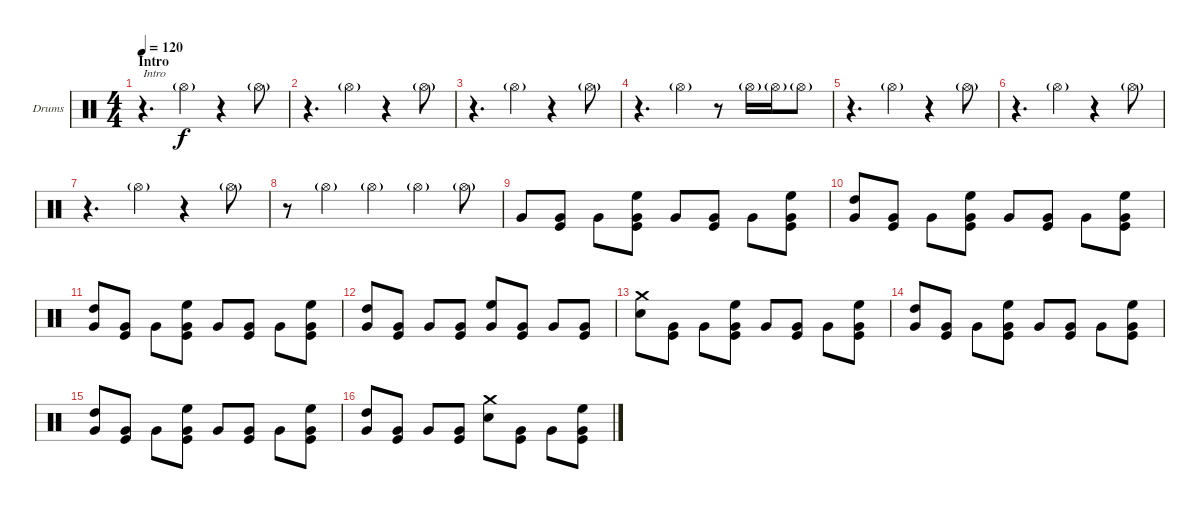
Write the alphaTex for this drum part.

\bracketExtendMode groupsimilarinstruments
\firstSystemTrackNameOrientation horizontal
\otherSystemsTrackNameOrientation horizontal
\track ("Drumkit" "Drums") {instrument percussion}
\staff {score}
\articulation defaults
\ts (4 4)
\section ("" "Intro")
\tempo 120
\clef neutral
\ks c
r.4{d txt "Intro" dy f} "Hi-Hat (open)"{g}.4 r.4 "Hi-Hat (open)"{g}.8 |
r.4{d} "Hi-Hat (open)"{g}.4 r.4 "Hi-Hat (open)"{g}.8 |
r.4{d} "Hi-Hat (open)"{g}.4 r.4 "Hi-Hat (open)"{g}.8 |
r.4{d} "Hi-Hat (open)"{g}.4 r.8 "Hi-Hat (open)"{g}.16 "Hi-Hat (open)"{g}.16 "Hi-Hat (open)"{g}.8 |
r.4{d} "Hi-Hat (open)"{g}.4 r.4 "Hi-Hat (open)"{g}.8 |
r.4{d} "Hi-Hat (open)"{g}.4 r.4 "Hi-Hat (open)"{g}.8 |
r.4{d} "Hi-Hat (open)"{g}.4 r.4 "Hi-Hat (open)"{g}.8 |
r.8 "Hi-Hat (open)"{g}.4 "Hi-Hat (open)"{g}.4 "Hi-Hat (open)"{g}.4 "Hi-Hat (open)"{g}.8 |
"Very Low Tom (hit)".8 ("Very Low Tom (hit)" "Kick (hit)").8 "Very Low Tom (hit)".8 ("High Floor Tom (hit)" "Very Low Tom (hit)" "Kick (hit)").8 "Very Low Tom (hit)".8 ("Very Low Tom (hit)" "Kick (hit)").8 "Very Low Tom (hit)".8 ("High Floor Tom (hit)" "Very Low Tom (hit)" "Kick (hit)").8 |
("High Tom (hit)" "Very Low Tom (hit)").8 ("Very Low Tom (hit)" "Kick (hit)").8 "Very Low Tom (hit)".8 ("High Floor Tom (hit)" "Very Low Tom (hit)" "Kick (hit)").8 "Very Low Tom (hit)".8 ("Very Low Tom (hit)" "Kick (hit)").8 "Very Low Tom (hit)".8 ("High Floor Tom (hit)" "Very Low Tom (hit)" "Kick (hit)").8 |
("High Tom (hit)" "Very Low Tom (hit)").8 ("Very Low Tom (hit)" "Kick (hit)").8 "Very Low Tom (hit)".8 ("High Floor Tom (hit)" "Very Low Tom (hit)" "Kick (hit)").8 "Very Low Tom (hit)".8 ("Very Low Tom (hit)" "Kick (hit)").8 "Very Low Tom (hit)".8 ("High Floor Tom (hit)" "Very Low Tom (hit)" "Kick (hit)").8 |
("High Tom (hit)" "Very Low Tom (hit)").8 ("Very Low Tom (hit)" "Kick (hit)").8 "Very Low Tom (hit)".8 ("Very Low Tom (hit)" "Kick (hit)").8 ("High Floor Tom (hit)" "Very Low Tom (hit)").8 ("Very Low Tom (hit)" "Kick (hit)").8 "Very Low Tom (hit)".8 ("Very Low Tom (hit)" "Kick (hit)").8 |
("Crash medium (hit)" "Snare (hit) 2").8 ("Very Low Tom (hit)" "Kick (hit)").8 "Very Low Tom (hit)".8 ("High Floor Tom (hit)" "Very Low Tom (hit)" "Kick (hit)").8 "Very Low Tom (hit)".8 ("Very Low Tom (hit)" "Kick (hit)").8 "Very Low Tom (hit)".8 ("High Floor Tom (hit)" "Very Low Tom (hit)" "Kick (hit)").8 |
("High Tom (hit)" "Very Low Tom (hit)").8 ("Very Low Tom (hit)" "Kick (hit)").8 "Very Low Tom (hit)".8 ("High Floor Tom (hit)" "Very Low Tom (hit)" "Kick (hit)").8 "Very Low Tom (hit)".8 ("Very Low Tom (hit)" "Kick (hit)").8 "Very Low Tom (hit)".8 ("High Floor Tom (hit)" "Very Low Tom (hit)" "Kick (hit)").8 |
("High Tom (hit)" "Very Low Tom (hit)").8 ("Very Low Tom (hit)" "Kick (hit)").8 "Very Low Tom (hit)".8 ("High Floor Tom (hit)" "Very Low Tom (hit)" "Kick (hit)").8 "Very Low Tom (hit)".8 ("Very Low Tom (hit)" "Kick (hit)").8 "Very Low Tom (hit)".8 ("High Floor Tom (hit)" "Very Low Tom (hit)" "Kick (hit)").8 |
("High Tom (hit)" "Very Low Tom (hit)").8 ("Very Low Tom (hit)" "Kick (hit)").8 "Very Low Tom (hit)".8 ("Very Low Tom (hit)" "Kick (hit)").8 ("Crash medium (hit)" "Snare (hit) 2").8 ("Very Low Tom (hit)" "Kick (hit)").8 "Very Low Tom (hit)".8 ("High Floor Tom (hit)" "Very Low Tom (hit)" "Kick (hit)").8
